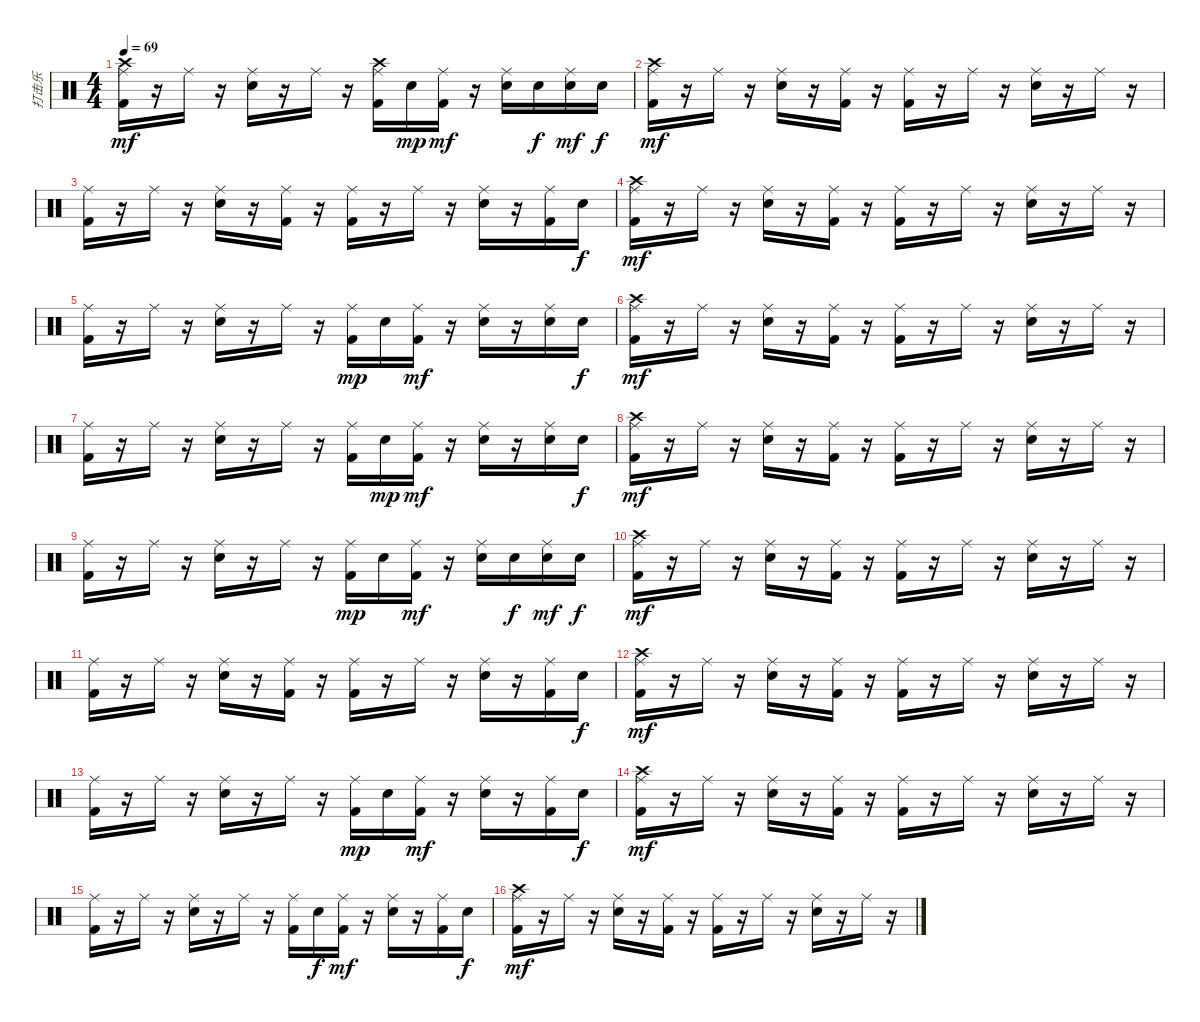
\track ("打击乐" "打击乐") {instrument percussion}
\staff {score}
\articulation defaults
\ts (4 4)
\tempo 69
\clef neutral
\ks c
("Crash high (hit)" "Ride (middle)" "Kick (hit) 2").16{dy mf} r.16 "Ride (middle)".16 r.16 ("Ride (middle)" "Electric Snare (hit)").16 r.16 "Ride (middle)".16 r.16 ("Crash high (hit)" "Kick (hit) 2" "Ride (middle)").16 "Electric Snare (hit)".16{dy mp} ("Kick (hit) 2" "Ride (middle)").16{dy mf} r.16 ("Electric Snare (hit)" "Ride (middle)").16 "Electric Snare (hit)".16{dy f} ("Electric Snare (hit)" "Ride (middle)").16{dy mf} "Electric Snare (hit)".16{dy f} |
("Ride (middle)" "Kick (hit) 2" "Crash high (hit)").16{dy mf} r.16 "Ride (middle)".16 r.16 ("Electric Snare (hit)" "Ride (middle)").16 r.16 ("Ride (middle)" "Kick (hit) 2").16 r.16 ("Ride (middle)" "Kick (hit) 2").16 r.16 "Ride (middle)".16 r.16 ("Electric Snare (hit)" "Ride (middle)").16 r.16 "Ride (middle)".16 r.16 |
("Ride (middle)" "Kick (hit) 2").16 r.16 "Ride (middle)".16 r.16 ("Ride (middle)" "Electric Snare (hit)").16 r.16 ("Kick (hit) 2" "Ride (middle)").16 r.16 ("Kick (hit) 2" "Ride (middle)").16 r.16 "Ride (middle)".16 r.16 ("Electric Snare (hit)" "Ride (middle)").16 r.16 ("Kick (hit) 2" "Ride (middle)").16 "Electric Snare (hit)".16{dy f} |
("Crash high (hit)" "Ride (middle)" "Kick (hit) 2").16{dy mf} r.16 "Ride (middle)".16 r.16 ("Electric Snare (hit)" "Ride (middle)").16 r.16 ("Kick (hit) 2" "Ride (middle)").16 r.16 ("Kick (hit) 2" "Ride (middle)").16 r.16 "Ride (middle)".16 r.16 ("Electric Snare (hit)" "Ride (middle)").16 r.16 "Ride (middle)".16 r.16 |
("Kick (hit) 2" "Ride (middle)").16 r.16 "Ride (middle)".16 r.16 ("Electric Snare (hit)" "Ride (middle)").16 r.16 "Ride (middle)".16 r.16 ("Ride (middle)" "Kick (hit) 2").16{dy mp} "Electric Snare (hit)".16 ("Kick (hit) 2" "Ride (middle)").16{dy mf} r.16 ("Electric Snare (hit)" "Ride (middle)").16 r.16 ("Electric Snare (hit)" "Ride (middle)").16 "Electric Snare (hit)".16{dy f} |
("Ride (middle)" "Kick (hit) 2" "Crash high (hit)").16{dy mf} r.16 "Ride (middle)".16 r.16 ("Electric Snare (hit)" "Ride (middle)").16 r.16 ("Ride (middle)" "Kick (hit) 2").16 r.16 ("Ride (middle)" "Kick (hit) 2").16 r.16 "Ride (middle)".16 r.16 ("Electric Snare (hit)" "Ride (middle)").16 r.16 "Ride (middle)".16 r.16 |
("Ride (middle)" "Kick (hit) 2").16 r.16 "Ride (middle)".16 r.16 ("Ride (middle)" "Electric Snare (hit)").16 r.16 "Ride (middle)".16 r.16 ("Kick (hit) 2" "Ride (middle)").16 "Electric Snare (hit)".16{dy mp} ("Kick (hit) 2" "Ride (middle)").16{dy mf} r.16 ("Ride (middle)" "Electric Snare (hit)").16 r.16 ("Ride (middle)" "Electric Snare (hit)").16 "Electric Snare (hit)".16{dy f} |
("Crash high (hit)" "Ride (middle)" "Kick (hit) 2").16{dy mf} r.16 "Ride (middle)".16 r.16 ("Electric Snare (hit)" "Ride (middle)").16 r.16 ("Kick (hit) 2" "Ride (middle)").16 r.16 ("Kick (hit) 2" "Ride (middle)").16 r.16 "Ride (middle)".16 r.16 ("Electric Snare (hit)" "Ride (middle)").16 r.16 "Ride (middle)".16 r.16 |
("Kick (hit) 2" "Ride (middle)").16 r.16 "Ride (middle)".16 r.16 ("Electric Snare (hit)" "Ride (middle)").16 r.16 "Ride (middle)".16 r.16 ("Ride (middle)" "Kick (hit) 2").16{dy mp} "Electric Snare (hit)".16 ("Kick (hit) 2" "Ride (middle)").16{dy mf} r.16 ("Electric Snare (hit)" "Ride (middle)").16 "Electric Snare (hit)".16{dy f} ("Electric Snare (hit)" "Ride (middle)").16{dy mf} "Electric Snare (hit)".16{dy f} |
("Ride (middle)" "Kick (hit) 2" "Crash high (hit)").16{dy mf} r.16 "Ride (middle)".16 r.16 ("Electric Snare (hit)" "Ride (middle)").16 r.16 ("Ride (middle)" "Kick (hit) 2").16 r.16 ("Ride (middle)" "Kick (hit) 2").16 r.16 "Ride (middle)".16 r.16 ("Electric Snare (hit)" "Ride (middle)").16 r.16 "Ride (middle)".16 r.16 |
("Ride (middle)" "Kick (hit) 2").16 r.16 "Ride (middle)".16 r.16 ("Ride (middle)" "Electric Snare (hit)").16 r.16 ("Kick (hit) 2" "Ride (middle)").16 r.16 ("Kick (hit) 2" "Ride (middle)").16 r.16 "Ride (middle)".16 r.16 ("Electric Snare (hit)" "Ride (middle)").16 r.16 ("Kick (hit) 2" "Ride (middle)").16 "Electric Snare (hit)".16{dy f} |
("Crash high (hit)" "Ride (middle)" "Kick (hit) 2").16{dy mf} r.16 "Ride (middle)".16 r.16 ("Electric Snare (hit)" "Ride (middle)").16 r.16 ("Kick (hit) 2" "Ride (middle)").16 r.16 ("Kick (hit) 2" "Ride (middle)").16 r.16 "Ride (middle)".16 r.16 ("Electric Snare (hit)" "Ride (middle)").16 r.16 "Ride (middle)".16 r.16 |
("Kick (hit) 2" "Ride (middle)").16 r.16 "Ride (middle)".16 r.16 ("Electric Snare (hit)" "Ride (middle)").16 r.16 "Ride (middle)".16 r.16 ("Ride (middle)" "Kick (hit) 2").16{dy mp} "Electric Snare (hit)".16 ("Kick (hit) 2" "Ride (middle)").16{dy mf} r.16 ("Electric Snare (hit)" "Ride (middle)").16 r.16 ("Kick (hit) 2" "Ride (middle)").16 "Electric Snare (hit)".16{dy f} |
("Ride (middle)" "Kick (hit) 2" "Crash high (hit)").16{dy mf} r.16 "Ride (middle)".16 r.16 ("Electric Snare (hit)" "Ride (middle)").16 r.16 ("Ride (middle)" "Kick (hit) 2").16 r.16 ("Ride (middle)" "Kick (hit) 2").16 r.16 "Ride (middle)".16 r.16 ("Electric Snare (hit)" "Ride (middle)").16 r.16 "Ride (middle)".16 r.16 |
("Ride (middle)" "Kick (hit) 2").16 r.16 "Ride (middle)".16 r.16 ("Ride (middle)" "Electric Snare (hit)").16 r.16 "Ride (middle)".16 r.16 ("Kick (hit) 2" "Ride (middle)").16 "Electric Snare (hit)".16{dy f} ("Kick (hit) 2" "Ride (middle)").16{dy mf} r.16 ("Ride (middle)" "Electric Snare (hit)").16 r.16 ("Kick (hit) 2" "Ride (middle)").16 "Electric Snare (hit)".16{dy f} |
("Crash high (hit)" "Ride (middle)" "Kick (hit) 2").16{dy mf} r.16 "Ride (middle)".16 r.16 ("Electric Snare (hit)" "Ride (middle)").16 r.16 ("Kick (hit) 2" "Ride (middle)").16 r.16 ("Kick (hit) 2" "Ride (middle)").16 r.16 "Ride (middle)".16 r.16 ("Electric Snare (hit)" "Ride (middle)").16 r.16 "Ride (middle)".16 r.16
